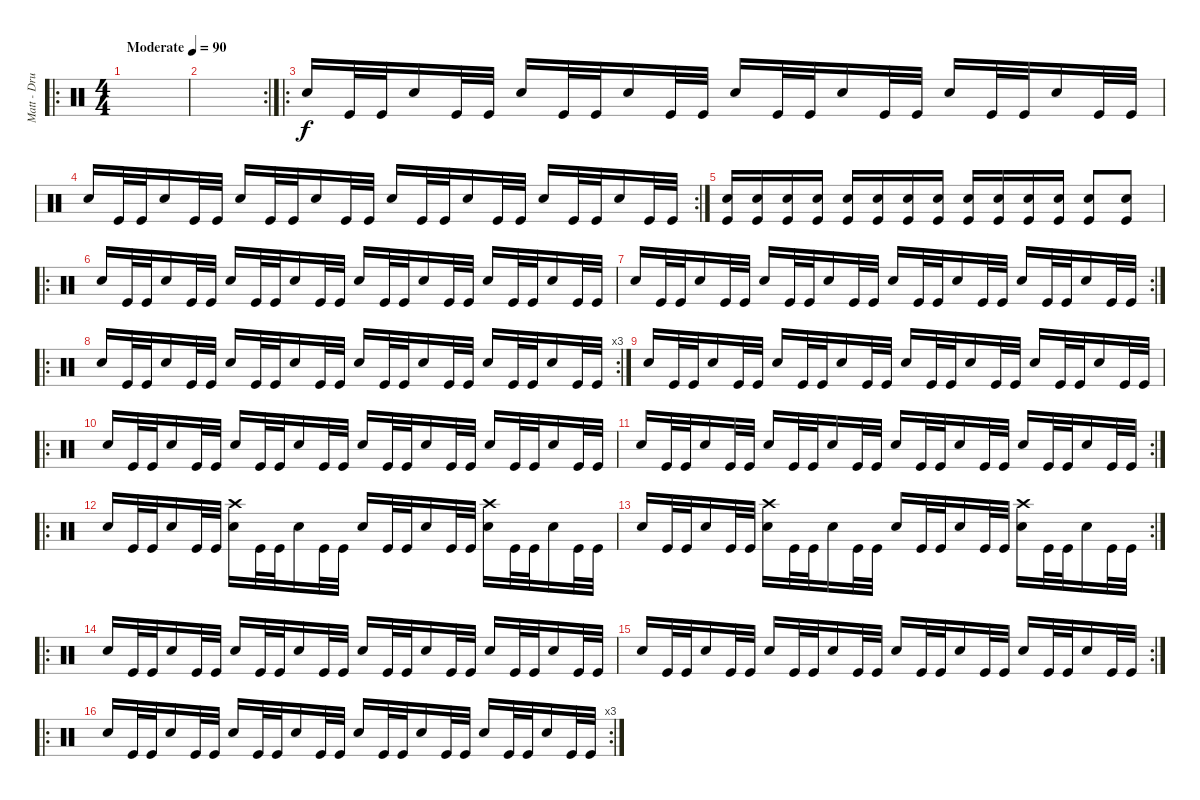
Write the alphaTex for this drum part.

\track ("Matt - Drums" "Matt - Dru") {instrument percussion}
\staff {score}
\articulation defaults
\ro
\ts (4 4)
\tempo (90 "Moderate")
\clef neutral
\ks c
|
\rc 2
|
\ro "Snare (hit) 2".16 "Kick (hit)".32 "Kick (hit)".32 "Snare (hit) 2".16 "Kick (hit)".32 "Kick (hit)".32 "Snare (hit) 2".16 "Kick (hit)".32 "Kick (hit)".32 "Snare (hit) 2".16 "Kick (hit)".32 "Kick (hit)".32 "Snare (hit) 2".16 "Kick (hit)".32 "Kick (hit)".32 "Snare (hit) 2".16 "Kick (hit)".32 "Kick (hit)".32 "Snare (hit) 2".16 "Kick (hit)".32 "Kick (hit)".32 "Snare (hit) 2".16 "Kick (hit)".32 "Kick (hit)".32
|
\rc 2 "Snare (hit) 2".16 "Kick (hit)".32 "Kick (hit)".32 "Snare (hit) 2".16 "Kick (hit)".32 "Kick (hit)".32 "Snare (hit) 2".16 "Kick (hit)".32 "Kick (hit)".32 "Snare (hit) 2".16 "Kick (hit)".32 "Kick (hit)".32 "Snare (hit) 2".16 "Kick (hit)".32 "Kick (hit)".32 "Snare (hit) 2".16 "Kick (hit)".32 "Kick (hit)".32 "Snare (hit) 2".16 "Kick (hit)".32 "Kick (hit)".32 "Snare (hit) 2".16 "Kick (hit)".32 "Kick (hit)".32
|
("Snare (hit) 2" "Kick (hit)").16 ("Snare (hit) 2" "Kick (hit)").16 ("Snare (hit) 2" "Kick (hit)").16 ("Snare (hit) 2" "Kick (hit)").16 ("Snare (hit) 2" "Kick (hit)").16 ("Snare (hit) 2" "Kick (hit)").16 ("Snare (hit) 2" "Kick (hit)").16 ("Snare (hit) 2" "Kick (hit)").16 ("Snare (hit) 2" "Kick (hit)").16 ("Snare (hit) 2" "Kick (hit)").16 ("Snare (hit) 2" "Kick (hit)").16 ("Snare (hit) 2" "Kick (hit)").16 ("Snare (hit) 2" "Kick (hit)").8 ("Snare (hit) 2" "Kick (hit)").8 |
\ro "Snare (hit) 2".16 "Kick (hit)".32 "Kick (hit)".32 "Snare (hit) 2".16 "Kick (hit)".32 "Kick (hit)".32 "Snare (hit) 2".16 "Kick (hit)".32 "Kick (hit)".32 "Snare (hit) 2".16 "Kick (hit)".32 "Kick (hit)".32 "Snare (hit) 2".16 "Kick (hit)".32 "Kick (hit)".32 "Snare (hit) 2".16 "Kick (hit)".32 "Kick (hit)".32 "Snare (hit) 2".16 "Kick (hit)".32 "Kick (hit)".32 "Snare (hit) 2".16 "Kick (hit)".32 "Kick (hit)".32
|
\rc 2 "Snare (hit) 2".16 "Kick (hit)".32 "Kick (hit)".32 "Snare (hit) 2".16 "Kick (hit)".32 "Kick (hit)".32 "Snare (hit) 2".16 "Kick (hit)".32 "Kick (hit)".32 "Snare (hit) 2".16 "Kick (hit)".32 "Kick (hit)".32 "Snare (hit) 2".16 "Kick (hit)".32 "Kick (hit)".32 "Snare (hit) 2".16 "Kick (hit)".32 "Kick (hit)".32 "Snare (hit) 2".16 "Kick (hit)".32 "Kick (hit)".32 "Snare (hit) 2".16 "Kick (hit)".32 "Kick (hit)".32
|
\ro
\rc 3 "Snare (hit) 2".16 "Kick (hit)".32 "Kick (hit)".32 "Snare (hit) 2".16 "Kick (hit)".32 "Kick (hit)".32 "Snare (hit) 2".16 "Kick (hit)".32 "Kick (hit)".32 "Snare (hit) 2".16 "Kick (hit)".32 "Kick (hit)".32 "Snare (hit) 2".16 "Kick (hit)".32 "Kick (hit)".32 "Snare (hit) 2".16 "Kick (hit)".32 "Kick (hit)".32 "Snare (hit) 2".16 "Kick (hit)".32 "Kick (hit)".32 "Snare (hit) 2".16 "Kick (hit)".32 "Kick (hit)".32
|
"Snare (hit) 2".16 "Kick (hit)".32 "Kick (hit)".32 "Snare (hit) 2".16 "Kick (hit)".32 "Kick (hit)".32 "Snare (hit) 2".16 "Kick (hit)".32 "Kick (hit)".32 "Snare (hit) 2".16 "Kick (hit)".32 "Kick (hit)".32 "Snare (hit) 2".16 "Kick (hit)".32 "Kick (hit)".32 "Snare (hit) 2".16 "Kick (hit)".32 "Kick (hit)".32 "Snare (hit) 2".16 "Kick (hit)".32 "Kick (hit)".32 "Snare (hit) 2".16 "Kick (hit)".32 "Kick (hit)".32 |
\ro "Snare (hit) 2".16 "Kick (hit)".32 "Kick (hit)".32 "Snare (hit) 2".16 "Kick (hit)".32 "Kick (hit)".32 "Snare (hit) 2".16 "Kick (hit)".32 "Kick (hit)".32 "Snare (hit) 2".16 "Kick (hit)".32 "Kick (hit)".32 "Snare (hit) 2".16 "Kick (hit)".32 "Kick (hit)".32 "Snare (hit) 2".16 "Kick (hit)".32 "Kick (hit)".32 "Snare (hit) 2".16 "Kick (hit)".32 "Kick (hit)".32 "Snare (hit) 2".16 "Kick (hit)".32 "Kick (hit)".32
|
\rc 2 "Snare (hit) 2".16 "Kick (hit)".32 "Kick (hit)".32 "Snare (hit) 2".16 "Kick (hit)".32 "Kick (hit)".32 "Snare (hit) 2".16 "Kick (hit)".32 "Kick (hit)".32 "Snare (hit) 2".16 "Kick (hit)".32 "Kick (hit)".32 "Snare (hit) 2".16 "Kick (hit)".32 "Kick (hit)".32 "Snare (hit) 2".16 "Kick (hit)".32 "Kick (hit)".32 "Snare (hit) 2".16 "Kick (hit)".32 "Kick (hit)".32 "Snare (hit) 2".16 "Kick (hit)".32 "Kick (hit)".32
|
\ro "Snare (hit) 2".16 "Kick (hit)".32 "Kick (hit)".32 "Snare (hit) 2".16 "Kick (hit)".32 "Kick (hit)".32
("Crash high (hit)" "Snare (hit) 2").16 "Kick (hit)".32 "Kick (hit)".32 "Snare (hit) 2".16 "Kick (hit)".32 "Kick (hit)".32 "Snare (hit) 2".16 "Kick (hit)".32 "Kick (hit)".32 "Snare (hit) 2".16 "Kick (hit)".32 "Kick (hit)".32 ("Crash high (hit)" "Snare (hit) 2").16 "Kick (hit)".32 "Kick (hit)".32 "Snare (hit) 2".16 "Kick (hit)".32 "Kick (hit)".32 |
\rc 2 "Snare (hit) 2".16 "Kick (hit)".32 "Kick (hit)".32 "Snare (hit) 2".16 "Kick (hit)".32 "Kick (hit)".32
("Crash high (hit)" "Snare (hit) 2").16 "Kick (hit)".32 "Kick (hit)".32 "Snare (hit) 2".16 "Kick (hit)".32 "Kick (hit)".32 "Snare (hit) 2".16 "Kick (hit)".32 "Kick (hit)".32 "Snare (hit) 2".16 "Kick (hit)".32 "Kick (hit)".32 ("Crash high (hit)" "Snare (hit) 2").16 "Kick (hit)".32 "Kick (hit)".32 "Snare (hit) 2".16 "Kick (hit)".32 "Kick (hit)".32 |
\ro "Snare (hit) 2".16 "Kick (hit)".32 "Kick (hit)".32 "Snare (hit) 2".16 "Kick (hit)".32 "Kick (hit)".32 "Snare (hit) 2".16 "Kick (hit)".32 "Kick (hit)".32 "Snare (hit) 2".16 "Kick (hit)".32 "Kick (hit)".32 "Snare (hit) 2".16 "Kick (hit)".32 "Kick (hit)".32 "Snare (hit) 2".16 "Kick (hit)".32 "Kick (hit)".32 "Snare (hit) 2".16 "Kick (hit)".32 "Kick (hit)".32 "Snare (hit) 2".16 "Kick (hit)".32 "Kick (hit)".32
|
\rc 2 "Snare (hit) 2".16 "Kick (hit)".32 "Kick (hit)".32 "Snare (hit) 2".16 "Kick (hit)".32 "Kick (hit)".32 "Snare (hit) 2".16 "Kick (hit)".32 "Kick (hit)".32 "Snare (hit) 2".16 "Kick (hit)".32 "Kick (hit)".32 "Snare (hit) 2".16 "Kick (hit)".32 "Kick (hit)".32 "Snare (hit) 2".16 "Kick (hit)".32 "Kick (hit)".32 "Snare (hit) 2".16 "Kick (hit)".32 "Kick (hit)".32 "Snare (hit) 2".16 "Kick (hit)".32 "Kick (hit)".32
|
\ro
\rc 3 "Snare (hit) 2".16 "Kick (hit)".32 "Kick (hit)".32 "Snare (hit) 2".16 "Kick (hit)".32 "Kick (hit)".32 "Snare (hit) 2".16 "Kick (hit)".32 "Kick (hit)".32 "Snare (hit) 2".16 "Kick (hit)".32 "Kick (hit)".32 "Snare (hit) 2".16 "Kick (hit)".32 "Kick (hit)".32 "Snare (hit) 2".16 "Kick (hit)".32 "Kick (hit)".32 "Snare (hit) 2".16 "Kick (hit)".32 "Kick (hit)".32 "Snare (hit) 2".16 "Kick (hit)".32 "Kick (hit)".32
